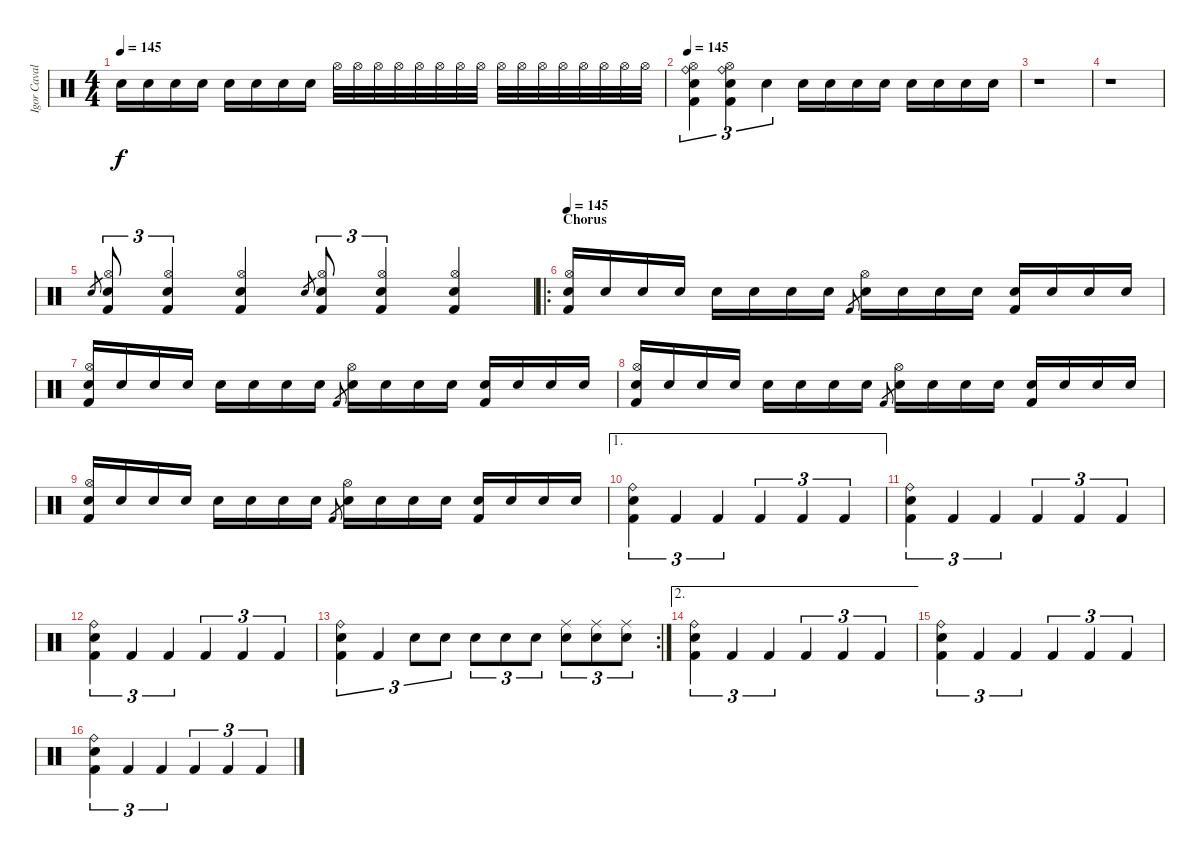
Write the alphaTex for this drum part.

\track ("Igor Cavalera - Drums" "Igor Caval") {instrument percussion}
\staff {score}
\articulation defaults
\ts (4 4)
\tempo 145
\clef neutral
\ks c "Snare (hit)".16{dy f} "Snare (hit)".16 "Snare (hit)".16 "Snare (hit)".16 "Snare (hit)".16 "Snare (hit)".16 "Snare (hit)".16 "Snare (hit)".16 "Hi-Hat (open)".32{volume 16} "Hi-Hat (open)".32 "Hi-Hat (open)".32 "Hi-Hat (open)".32 "Hi-Hat (open)".32 "Hi-Hat (open)".32 "Hi-Hat (open)".32 "Hi-Hat (open)".32 "Hi-Hat (open)".32 "Hi-Hat (open)".32 "Hi-Hat (open)".32 "Hi-Hat (open)".32 "Hi-Hat (open)".32 "Hi-Hat (open)".32 "Hi-Hat (open)".32 "Hi-Hat (open)".32
|
\tempo 145
("Ride (bell)" "Hi-Hat (open)" "Electric Snare (hit)" "Kick (hit) 2").4{tu (3 2) volume 16 balance 8} ("Ride (bell)" "Hi-Hat (open)" "Electric Snare (hit)" "Kick (hit) 2").4{tu (3 2)} "Snare (hit)".4{tu (3 2)} "Snare (hit)".16 "Snare (hit)".16 "Snare (hit)".16 "Snare (hit)".16 "Snare (hit)".16 "Snare (hit)".16 "Snare (hit)".16 "Snare (hit)".16 |
r.1 |
r.1 |
"Snare (hit) 2".8{gr} ("Hi-Hat (open)" "Snare (hit) 2" "Kick (hit) 2").8{tu (3 2)} ("Hi-Hat (open)" "Snare (hit) 2" "Kick (hit) 2").4{tu (3 2)} ("Hi-Hat (open)" "Snare (hit) 2" "Kick (hit) 2").4 "Snare (hit) 2".8{gr} ("Hi-Hat (open)" "Snare (hit) 2" "Kick (hit) 2").8{tu (3 2)} ("Hi-Hat (open)" "Snare (hit) 2" "Kick (hit) 2").4{tu (3 2)} ("Hi-Hat (open)" "Snare (hit) 2" "Kick (hit) 2").4 |
\ro
\section ("" "Chorus")
\tempo 145
("Hi-Hat (open)" "Snare (hit) 2" "Kick (hit) 2").16{volume 16 balance 8} "Snare (hit)".16 "Snare (hit)".16 "Snare (hit)".16 "Snare (hit)".16 "Snare (hit)".16 "Snare (hit)".16 "Snare (hit)".16 "Kick (hit) 2".8{gr} ("Hi-Hat (open)" "Electric Snare (hit)").16 "Snare (hit)".16 "Snare (hit)".16 "Snare (hit)".16 ("Snare (hit) 2" "Kick (hit) 2").16 "Snare (hit)".16 "Snare (hit)".16 "Snare (hit)".16 |
("Hi-Hat (open)" "Snare (hit) 2" "Kick (hit) 2").16 "Snare (hit)".16 "Snare (hit)".16 "Snare (hit)".16 "Snare (hit)".16 "Snare (hit)".16 "Snare (hit)".16 "Snare (hit)".16 "Kick (hit) 2".8{gr} ("Hi-Hat (open)" "Electric Snare (hit)").16 "Snare (hit)".16 "Snare (hit)".16 "Snare (hit)".16 ("Snare (hit) 2" "Kick (hit) 2").16 "Snare (hit)".16 "Snare (hit)".16 "Snare (hit)".16 |
("Hi-Hat (open)" "Snare (hit) 2" "Kick (hit) 2").16 "Snare (hit)".16 "Snare (hit)".16 "Snare (hit)".16 "Snare (hit)".16 "Snare (hit)".16 "Snare (hit)".16 "Snare (hit)".16 "Kick (hit) 2".8{gr} ("Hi-Hat (open)" "Electric Snare (hit)").16 "Snare (hit)".16 "Snare (hit)".16 "Snare (hit)".16 ("Snare (hit) 2" "Kick (hit) 2").16 "Snare (hit)".16 "Snare (hit)".16 "Snare (hit)".16 |
("Hi-Hat (open)" "Snare (hit) 2" "Kick (hit) 2").16 "Snare (hit)".16 "Snare (hit)".16 "Snare (hit)".16 "Snare (hit)".16 "Snare (hit)".16 "Snare (hit)".16 "Snare (hit)".16 "Kick (hit) 2".8{gr} ("Hi-Hat (open)" "Electric Snare (hit)").16 "Snare (hit)".16 "Snare (hit)".16 "Snare (hit)".16 ("Snare (hit) 2" "Kick (hit) 2").16 "Snare (hit)".16 "Snare (hit)".16 "Snare (hit)".16 |
\ae 1
("Ride (bell)" "Electric Snare (hit)" "Kick (hit) 2").4{tu (3 2)} "Kick (hit) 2".4{tu (3 2)} "Kick (hit) 2".4{tu (3 2)} "Kick (hit) 2".4{tu (3 2)} "Kick (hit) 2".4{tu (3 2)} "Kick (hit) 2".4{tu (3 2)} |
("Ride (bell)" "Electric Snare (hit)" "Kick (hit) 2").4{tu (3 2)} "Kick (hit) 2".4{tu (3 2)} "Kick (hit) 2".4{tu (3 2)} "Kick (hit) 2".4{tu (3 2)} "Kick (hit) 2".4{tu (3 2)} "Kick (hit) 2".4{tu (3 2)} |
("Ride (bell)" "Electric Snare (hit)" "Kick (hit) 2").4{tu (3 2)} "Kick (hit) 2".4{tu (3 2)} "Kick (hit) 2".4{tu (3 2)} "Kick (hit) 2".4{tu (3 2)} "Kick (hit) 2".4{tu (3 2)} "Kick (hit) 2".4{tu (3 2)} |
\rc 2
("Ride (bell)" "Electric Snare (hit)" "Kick (hit) 2").4{tu (3 2)} "Kick (hit) 2".4{tu (3 2)} "Electric Snare (hit)".8{tu (3 2)} "Electric Snare (hit)".8{tu (3 2)} "Electric Snare (hit)".8{tu (3 2)} "Electric Snare (hit)".8{tu (3 2)} "Electric Snare (hit)".8{tu (3 2)} ("Ride (middle)" "Electric Snare (hit)").8{tu (3 2)} ("Ride (middle)" "Electric Snare (hit)").8{tu (3 2)} ("Ride (middle)" "Electric Snare (hit)").8{tu (3 2)} |
\ae 2
("Ride (bell)" "Electric Snare (hit)" "Kick (hit) 2").4{tu (3 2)} "Kick (hit) 2".4{tu (3 2)} "Kick (hit) 2".4{tu (3 2)} "Kick (hit) 2".4{tu (3 2)} "Kick (hit) 2".4{tu (3 2)} "Kick (hit) 2".4{tu (3 2)} |
("Ride (bell)" "Electric Snare (hit)" "Kick (hit) 2").4{tu (3 2)} "Kick (hit) 2".4{tu (3 2)} "Kick (hit) 2".4{tu (3 2)} "Kick (hit) 2".4{tu (3 2)} "Kick (hit) 2".4{tu (3 2)} "Kick (hit) 2".4{tu (3 2)} |
("Ride (bell)" "Electric Snare (hit)" "Kick (hit) 2").4{tu (3 2)} "Kick (hit) 2".4{tu (3 2)} "Kick (hit) 2".4{tu (3 2)} "Kick (hit) 2".4{tu (3 2)} "Kick (hit) 2".4{tu (3 2)} "Kick (hit) 2".4{tu (3 2)}
